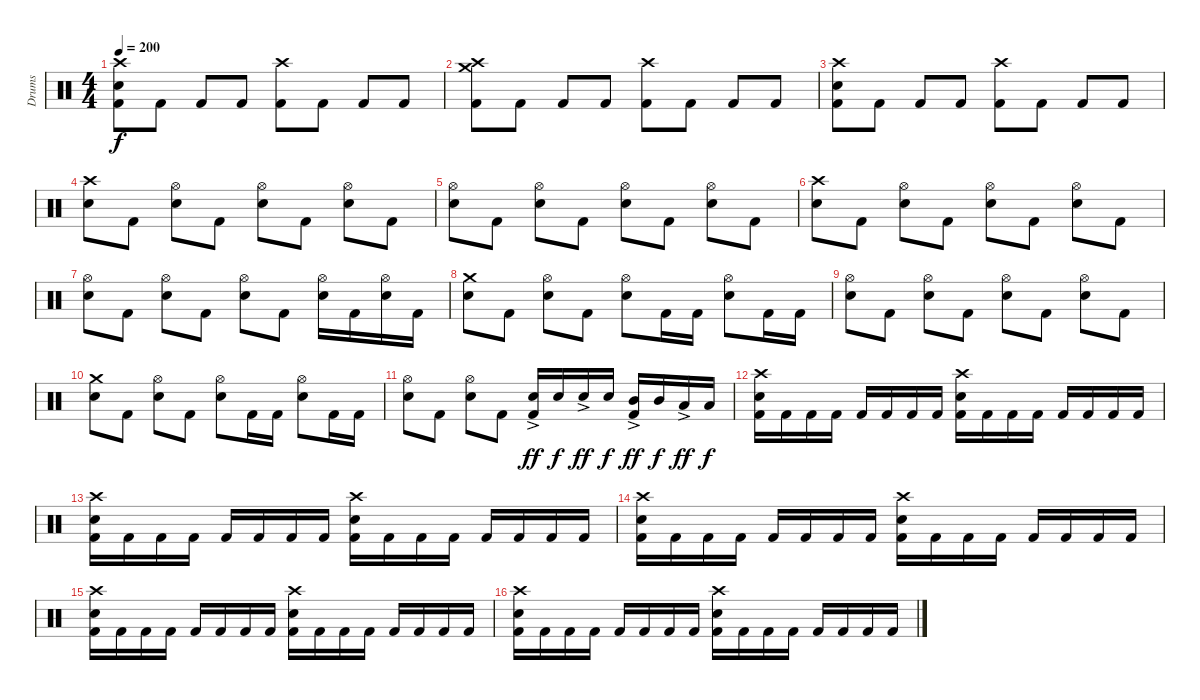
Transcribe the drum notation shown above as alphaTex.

\track ("Drums" "Drums") {instrument percussion}
\staff {score}
\articulation defaults
\ts (4 4)
\tempo 200
\clef neutral
\ks c
("Crash high (hit)" "Electric Snare (hit)" "Kick (hit) 2").8{dy f} "Kick (hit) 2".8 "Kick (hit) 2".8 "Kick (hit) 2".8 ("Crash high (hit)" "Kick (hit) 2").8 "Kick (hit) 2".8 "Kick (hit) 2".8 "Kick (hit) 2".8 |
("Crash medium (hit)" "Crash high (hit)" "Kick (hit) 2").8 "Kick (hit) 2".8 "Kick (hit) 2".8 "Kick (hit) 2".8 ("Crash high (hit)" "Kick (hit) 2").8 "Kick (hit) 2".8 "Kick (hit) 2".8 "Kick (hit) 2".8 |
("Crash high (hit)" "Electric Snare (hit)" "Kick (hit) 2").8 "Kick (hit) 2".8 "Kick (hit) 2".8 "Kick (hit) 2".8 ("Crash high (hit)" "Kick (hit) 2").8 "Kick (hit) 2".8 "Kick (hit) 2".8 "Kick (hit) 2".8 |
("Crash high (hit)" "Electric Snare (hit)").8 "Kick (hit) 2".8 ("Hi-Hat (open)" "Electric Snare (hit)").8 "Kick (hit) 2".8 ("Hi-Hat (open)" "Electric Snare (hit)").8 "Kick (hit) 2".8 ("Hi-Hat (open)" "Electric Snare (hit)").8 "Kick (hit) 2".8 |
("Hi-Hat (open)" "Electric Snare (hit)").8 "Kick (hit) 2".8 ("Hi-Hat (open)" "Electric Snare (hit)").8 "Kick (hit) 2".8 ("Hi-Hat (open)" "Electric Snare (hit)").8 "Kick (hit) 2".8 ("Hi-Hat (open)" "Electric Snare (hit)").8 "Kick (hit) 2".8 |
("Crash high (hit)" "Electric Snare (hit)").8 "Kick (hit) 2".8 ("Hi-Hat (open)" "Electric Snare (hit)").8 "Kick (hit) 2".8 ("Hi-Hat (open)" "Electric Snare (hit)").8 "Kick (hit) 2".8 ("Hi-Hat (open)" "Electric Snare (hit)").8 "Kick (hit) 2".8 |
("Hi-Hat (open)" "Electric Snare (hit)").8 "Kick (hit) 2".8 ("Hi-Hat (open)" "Electric Snare (hit)").8 "Kick (hit) 2".8 ("Hi-Hat (open)" "Electric Snare (hit)").8 "Kick (hit) 2".8 ("Hi-Hat (open)" "Electric Snare (hit)").16 "Kick (hit) 2".16 ("Hi-Hat (open)" "Electric Snare (hit)").16 "Kick (hit) 2".16 |
("Crash medium (hit)" "Electric Snare (hit)").8 "Kick (hit) 2".8 ("Hi-Hat (open)" "Electric Snare (hit)").8 "Kick (hit) 2".8 ("Hi-Hat (open)" "Electric Snare (hit)").8 "Kick (hit) 2".16 "Kick (hit) 2".16 ("Hi-Hat (open)" "Electric Snare (hit)").8 "Kick (hit) 2".16 "Kick (hit) 2".16 |
("Hi-Hat (open)" "Electric Snare (hit)").8 "Kick (hit) 2".8 ("Hi-Hat (open)" "Electric Snare (hit)").8 "Kick (hit) 2".8 ("Hi-Hat (open)" "Electric Snare (hit)").8 "Kick (hit) 2".8 ("Hi-Hat (open)" "Electric Snare (hit)").8 "Kick (hit) 2".8 |
("Crash medium (hit)" "Electric Snare (hit)").8 "Kick (hit) 2".8 ("Hi-Hat (open)" "Electric Snare (hit)").8 "Kick (hit) 2".8 ("Hi-Hat (open)" "Electric Snare (hit)").8 "Kick (hit) 2".16 "Kick (hit) 2".16 ("Hi-Hat (open)" "Electric Snare (hit)").8 "Kick (hit) 2".16 "Kick (hit) 2".16 |
("Hi-Hat (open)" "Electric Snare (hit)").8 "Kick (hit) 2".8 ("Hi-Hat (open)" "Electric Snare (hit)").8 "Kick (hit) 2".8 ("Electric Snare (hit)"{ac} "Kick (hit) 2").16{dy ff} "Electric Snare (hit)".16{dy f} "Electric Snare (hit)"{ac}.16{dy ff} "Electric Snare (hit)".16{dy f} ("Mid Tom (hit)"{ac} "Kick (hit) 2").16{dy ff} "Mid Tom (hit)".16{dy f} "Low Tom (hit)"{ac}.16{dy ff} "Low Tom (hit)".16{dy f} |
("Crash high (hit)" "Electric Snare (hit)" "Kick (hit) 2").16 "Kick (hit) 2".16 "Kick (hit) 2".16 "Kick (hit) 2".16 "Kick (hit) 2".16 "Kick (hit) 2".16 "Kick (hit) 2".16 "Kick (hit) 2".16 ("Crash high (hit)" "Electric Snare (hit)" "Kick (hit) 2").16 "Kick (hit) 2".16 "Kick (hit) 2".16 "Kick (hit) 2".16 "Kick (hit) 2".16 "Kick (hit) 2".16 "Kick (hit) 2".16 "Kick (hit) 2".16 |
("Crash high (hit)" "Electric Snare (hit)" "Kick (hit) 2").16 "Kick (hit) 2".16 "Kick (hit) 2".16 "Kick (hit) 2".16 "Kick (hit) 2".16 "Kick (hit) 2".16 "Kick (hit) 2".16 "Kick (hit) 2".16 ("Crash high (hit)" "Electric Snare (hit)" "Kick (hit) 2").16 "Kick (hit) 2".16 "Kick (hit) 2".16 "Kick (hit) 2".16 "Kick (hit) 2".16 "Kick (hit) 2".16 "Kick (hit) 2".16 "Kick (hit) 2".16 |
("Crash high (hit)" "Electric Snare (hit)" "Kick (hit) 2").16 "Kick (hit) 2".16 "Kick (hit) 2".16 "Kick (hit) 2".16 "Kick (hit) 2".16 "Kick (hit) 2".16 "Kick (hit) 2".16 "Kick (hit) 2".16 ("Crash high (hit)" "Electric Snare (hit)" "Kick (hit) 2").16 "Kick (hit) 2".16 "Kick (hit) 2".16 "Kick (hit) 2".16 "Kick (hit) 2".16 "Kick (hit) 2".16 "Kick (hit) 2".16 "Kick (hit) 2".16 |
("Crash high (hit)" "Electric Snare (hit)" "Kick (hit) 2").16 "Kick (hit) 2".16 "Kick (hit) 2".16 "Kick (hit) 2".16 "Kick (hit) 2".16 "Kick (hit) 2".16 "Kick (hit) 2".16 "Kick (hit) 2".16 ("Crash high (hit)" "Electric Snare (hit)" "Kick (hit) 2").16 "Kick (hit) 2".16 "Kick (hit) 2".16 "Kick (hit) 2".16 "Kick (hit) 2".16 "Kick (hit) 2".16 "Kick (hit) 2".16 "Kick (hit) 2".16 |
("Crash high (hit)" "Electric Snare (hit)" "Kick (hit) 2").16 "Kick (hit) 2".16 "Kick (hit) 2".16 "Kick (hit) 2".16 "Kick (hit) 2".16 "Kick (hit) 2".16 "Kick (hit) 2".16 "Kick (hit) 2".16 ("Crash high (hit)" "Electric Snare (hit)" "Kick (hit) 2").16 "Kick (hit) 2".16 "Kick (hit) 2".16 "Kick (hit) 2".16 "Kick (hit) 2".16 "Kick (hit) 2".16 "Kick (hit) 2".16 "Kick (hit) 2".16
